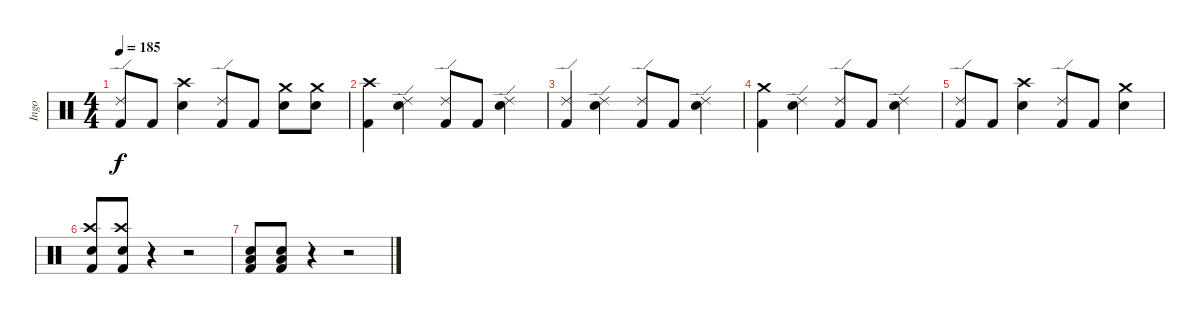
\track ("Ingo" "Ingo") {instrument percussion}
\staff {score}
\articulation defaults
\ts (4 4)
\tempo 185
\clef neutral
\ks c
("Ride (edge) 2" "Kick (hit) 2").8{dy f} "Kick (hit) 2".8 ("Crash high (hit)" "Electric Snare (hit)").4 ("Ride (edge) 2" "Kick (hit) 2").8 "Kick (hit) 2".8 ("Crash medium (hit)" "Electric Snare (hit)").8 ("Crash medium (hit)" "Electric Snare (hit)").8 |
("Crash high (hit)" "Kick (hit) 2").4 ("Ride (edge) 2" "Electric Snare (hit)").4 ("Ride (edge) 2" "Kick (hit) 2").8 "Kick (hit) 2".8 ("Ride (edge) 2" "Electric Snare (hit)").4 |
("Ride (edge) 2" "Kick (hit) 2").4 ("Ride (edge) 2" "Electric Snare (hit)").4 ("Ride (edge) 2" "Kick (hit) 2").8 "Kick (hit) 2".8 ("Ride (edge) 2" "Electric Snare (hit)").4 |
("Crash medium (hit)" "Kick (hit) 2").4 ("Ride (edge) 2" "Electric Snare (hit)").4 ("Ride (edge) 2" "Kick (hit) 2").8 "Kick (hit) 2".8 ("Ride (edge) 2" "Electric Snare (hit)").4 |
("Ride (edge) 2" "Kick (hit) 2").8 "Kick (hit) 2".8 ("Crash high (hit)" "Electric Snare (hit)").4 ("Ride (edge) 2" "Kick (hit) 2").8 "Kick (hit) 2".8 ("Crash medium (hit)" "Electric Snare (hit)").4 |
("Crash high (hit)" "Electric Snare (hit)" "Kick (hit) 2").8 ("Crash high (hit)" "Electric Snare (hit)" "Kick (hit) 2").8 r.4 r.2 |
("Electric Snare (hit)" "Low Floor Tom (hit)" "Kick (hit) 2").8 ("Electric Snare (hit)" "Low Floor Tom (hit)" "Kick (hit) 2").8 r.4 r.2
